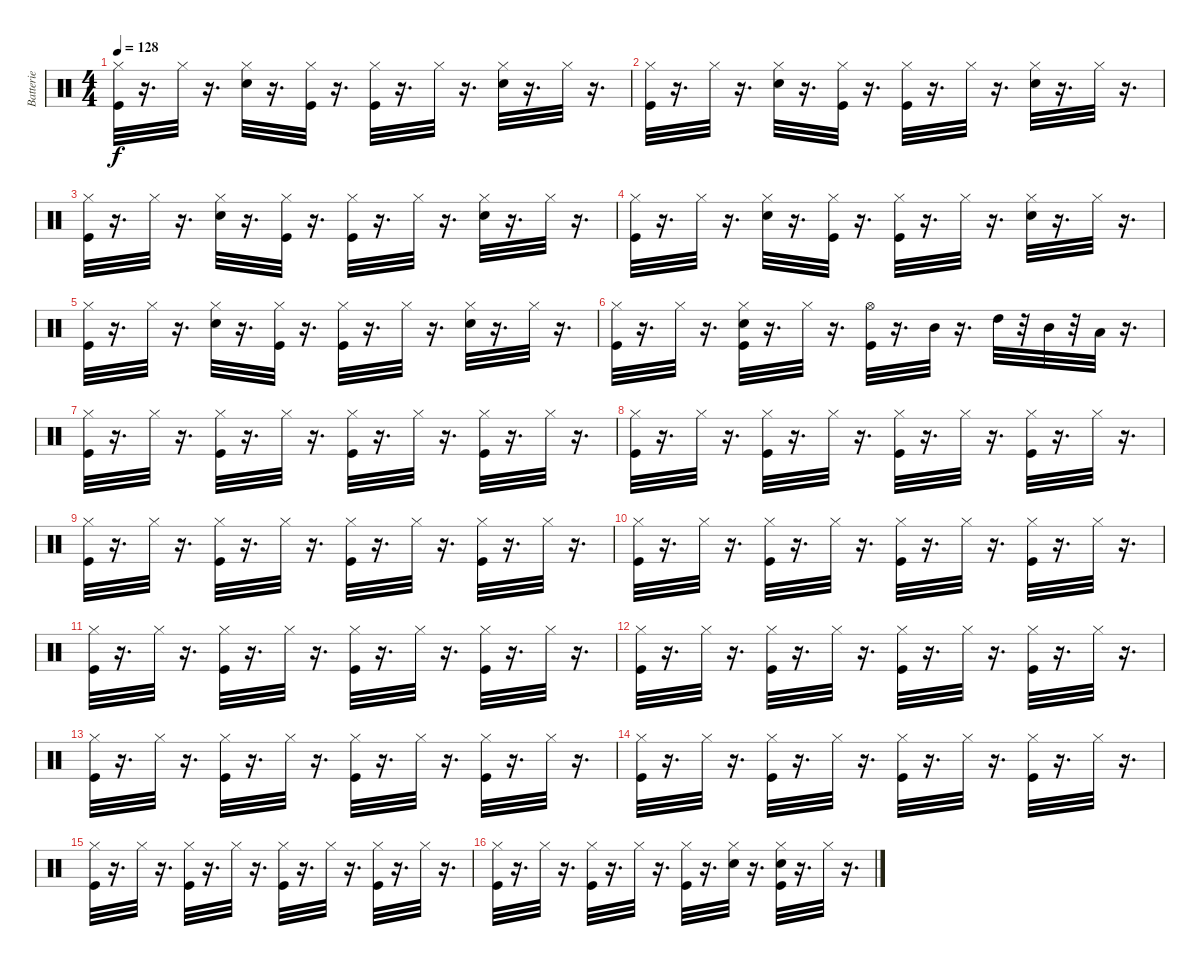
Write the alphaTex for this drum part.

\track ("Batterie" "Batterie") {instrument percussion}
\staff {score}
\articulation defaults
\ts (4 4)
\tempo 128
\clef neutral
\ks c
("Kick (hit)" "Hi-Hat (closed)").32{dy f} r.16{d} "Hi-Hat (closed)".32 r.16{d} ("Snare (hit) 2" "Hi-Hat (closed)").32 r.16{d} ("Kick (hit)" "Hi-Hat (closed)").32 r.16{d} ("Kick (hit)" "Hi-Hat (closed)").32 r.16{d} "Hi-Hat (closed)".32 r.16{d} ("Snare (hit) 2" "Hi-Hat (closed)").32 r.16{d} "Hi-Hat (closed)".32 r.16{d} |
("Kick (hit)" "Hi-Hat (closed)").32 r.16{d} "Hi-Hat (closed)".32 r.16{d} ("Snare (hit) 2" "Hi-Hat (closed)").32 r.16{d} ("Kick (hit)" "Hi-Hat (closed)").32 r.16{d} ("Kick (hit)" "Hi-Hat (closed)").32 r.16{d} "Hi-Hat (closed)".32 r.16{d} ("Snare (hit) 2" "Hi-Hat (closed)").32 r.16{d} "Hi-Hat (closed)".32 r.16{d} |
("Kick (hit)" "Hi-Hat (closed)").32 r.16{d} "Hi-Hat (closed)".32 r.16{d} ("Snare (hit) 2" "Hi-Hat (closed)").32 r.16{d} ("Kick (hit)" "Hi-Hat (closed)").32 r.16{d} ("Kick (hit)" "Hi-Hat (closed)").32 r.16{d} "Hi-Hat (closed)".32 r.16{d} ("Snare (hit) 2" "Hi-Hat (closed)").32 r.16{d} "Hi-Hat (closed)".32 r.16{d} |
("Kick (hit)" "Hi-Hat (closed)").32 r.16{d} "Hi-Hat (closed)".32 r.16{d} ("Snare (hit) 2" "Hi-Hat (closed)").32 r.16{d} ("Kick (hit)" "Hi-Hat (closed)").32 r.16{d} ("Kick (hit)" "Hi-Hat (closed)").32 r.16{d} "Hi-Hat (closed)".32 r.16{d} ("Snare (hit) 2" "Hi-Hat (closed)").32 r.16{d} "Hi-Hat (closed)".32 r.16{d} |
("Kick (hit)" "Hi-Hat (closed)").32 r.16{d} "Hi-Hat (closed)".32 r.16{d} ("Snare (hit) 2" "Hi-Hat (closed)").32 r.16{d} ("Kick (hit)" "Hi-Hat (closed)").32 r.16{d} ("Kick (hit)" "Hi-Hat (closed)").32 r.16{d} "Hi-Hat (closed)".32 r.16{d} ("Snare (hit) 2" "Hi-Hat (closed)").32 r.16{d} "Hi-Hat (closed)".32 r.16{d} |
("Kick (hit)" "Hi-Hat (closed)").32 r.16{d} "Hi-Hat (closed)".32 r.16{d} ("Snare (hit) 2" "Kick (hit)" "Hi-Hat (closed)").32 r.16{d} "Hi-Hat (closed)".32 r.16{d} ("Kick (hit)" "Hi-Hat (open)").32 r.16{d} "Mid Tom (hit)".32 r.16{d} "High Tom (hit)".32 r.32 "Mid Tom (hit)".32 r.32 "Low Tom (hit)".32 r.16{d} |
("Kick (hit)" "Hi-Hat (closed)").32 r.16{d} "Hi-Hat (closed)".32 r.16{d} ("Kick (hit)" "Hi-Hat (closed)").32 r.16{d} "Hi-Hat (closed)".32 r.16{d} ("Kick (hit)" "Hi-Hat (closed)").32 r.16{d} "Hi-Hat (closed)".32 r.16{d} ("Kick (hit)" "Hi-Hat (closed)").32 r.16{d} "Hi-Hat (closed)".32 r.16{d} |
("Kick (hit)" "Hi-Hat (closed)").32 r.16{d} "Hi-Hat (closed)".32 r.16{d} ("Kick (hit)" "Hi-Hat (closed)").32 r.16{d} "Hi-Hat (closed)".32 r.16{d} ("Kick (hit)" "Hi-Hat (closed)").32 r.16{d} "Hi-Hat (closed)".32 r.16{d} ("Kick (hit)" "Hi-Hat (closed)").32 r.16{d} "Hi-Hat (closed)".32 r.16{d} |
("Kick (hit)" "Hi-Hat (closed)").32 r.16{d} "Hi-Hat (closed)".32 r.16{d} ("Kick (hit)" "Hi-Hat (closed)").32 r.16{d} "Hi-Hat (closed)".32 r.16{d} ("Kick (hit)" "Hi-Hat (closed)").32 r.16{d} "Hi-Hat (closed)".32 r.16{d} ("Kick (hit)" "Hi-Hat (closed)").32 r.16{d} "Hi-Hat (closed)".32 r.16{d} |
("Kick (hit)" "Hi-Hat (closed)").32 r.16{d} "Hi-Hat (closed)".32 r.16{d} ("Kick (hit)" "Hi-Hat (closed)").32 r.16{d} "Hi-Hat (closed)".32 r.16{d} ("Kick (hit)" "Hi-Hat (closed)").32 r.16{d} "Hi-Hat (closed)".32 r.16{d} ("Kick (hit)" "Hi-Hat (closed)").32 r.16{d} "Hi-Hat (closed)".32 r.16{d} |
("Kick (hit)" "Hi-Hat (closed)").32 r.16{d} "Hi-Hat (closed)".32 r.16{d} ("Kick (hit)" "Hi-Hat (closed)").32 r.16{d} "Hi-Hat (closed)".32 r.16{d} ("Kick (hit)" "Hi-Hat (closed)").32 r.16{d} "Hi-Hat (closed)".32 r.16{d} ("Kick (hit)" "Hi-Hat (closed)").32 r.16{d} "Hi-Hat (closed)".32 r.16{d} |
("Kick (hit)" "Hi-Hat (closed)").32 r.16{d} "Hi-Hat (closed)".32 r.16{d} ("Kick (hit)" "Hi-Hat (closed)").32 r.16{d} "Hi-Hat (closed)".32 r.16{d} ("Kick (hit)" "Hi-Hat (closed)").32 r.16{d} "Hi-Hat (closed)".32 r.16{d} ("Kick (hit)" "Hi-Hat (closed)").32 r.16{d} "Hi-Hat (closed)".32 r.16{d} |
("Kick (hit)" "Hi-Hat (closed)").32 r.16{d} "Hi-Hat (closed)".32 r.16{d} ("Kick (hit)" "Hi-Hat (closed)").32 r.16{d} "Hi-Hat (closed)".32 r.16{d} ("Kick (hit)" "Hi-Hat (closed)").32 r.16{d} "Hi-Hat (closed)".32 r.16{d} ("Kick (hit)" "Hi-Hat (closed)").32 r.16{d} "Hi-Hat (closed)".32 r.16{d} |
("Kick (hit)" "Hi-Hat (closed)").32 r.16{d} "Hi-Hat (closed)".32 r.16{d} ("Kick (hit)" "Hi-Hat (closed)").32 r.16{d} "Hi-Hat (closed)".32 r.16{d} ("Kick (hit)" "Hi-Hat (closed)").32 r.16{d} "Hi-Hat (closed)".32 r.16{d} ("Kick (hit)" "Hi-Hat (closed)").32 r.16{d} "Hi-Hat (closed)".32 r.16{d} |
("Kick (hit)" "Hi-Hat (closed)").32 r.16{d} "Hi-Hat (closed)".32 r.16{d} ("Kick (hit)" "Hi-Hat (closed)").32 r.16{d} "Hi-Hat (closed)".32 r.16{d} ("Kick (hit)" "Hi-Hat (closed)").32 r.16{d} "Hi-Hat (closed)".32 r.16{d} ("Kick (hit)" "Hi-Hat (closed)").32 r.16{d} "Hi-Hat (closed)".32 r.16{d} |
("Kick (hit)" "Hi-Hat (closed)").32 r.16{d} "Hi-Hat (closed)".32 r.16{d} ("Kick (hit)" "Hi-Hat (closed)").32 r.16{d} "Hi-Hat (closed)".32 r.16{d} ("Kick (hit)" "Hi-Hat (closed)").32 r.16{d} ("Snare (hit) 2" "Hi-Hat (closed)").32 r.16{d} ("Snare (hit) 2" "Kick (hit)" "Hi-Hat (closed)").32 r.16{d} "Hi-Hat (closed)".32 r.16{d}
